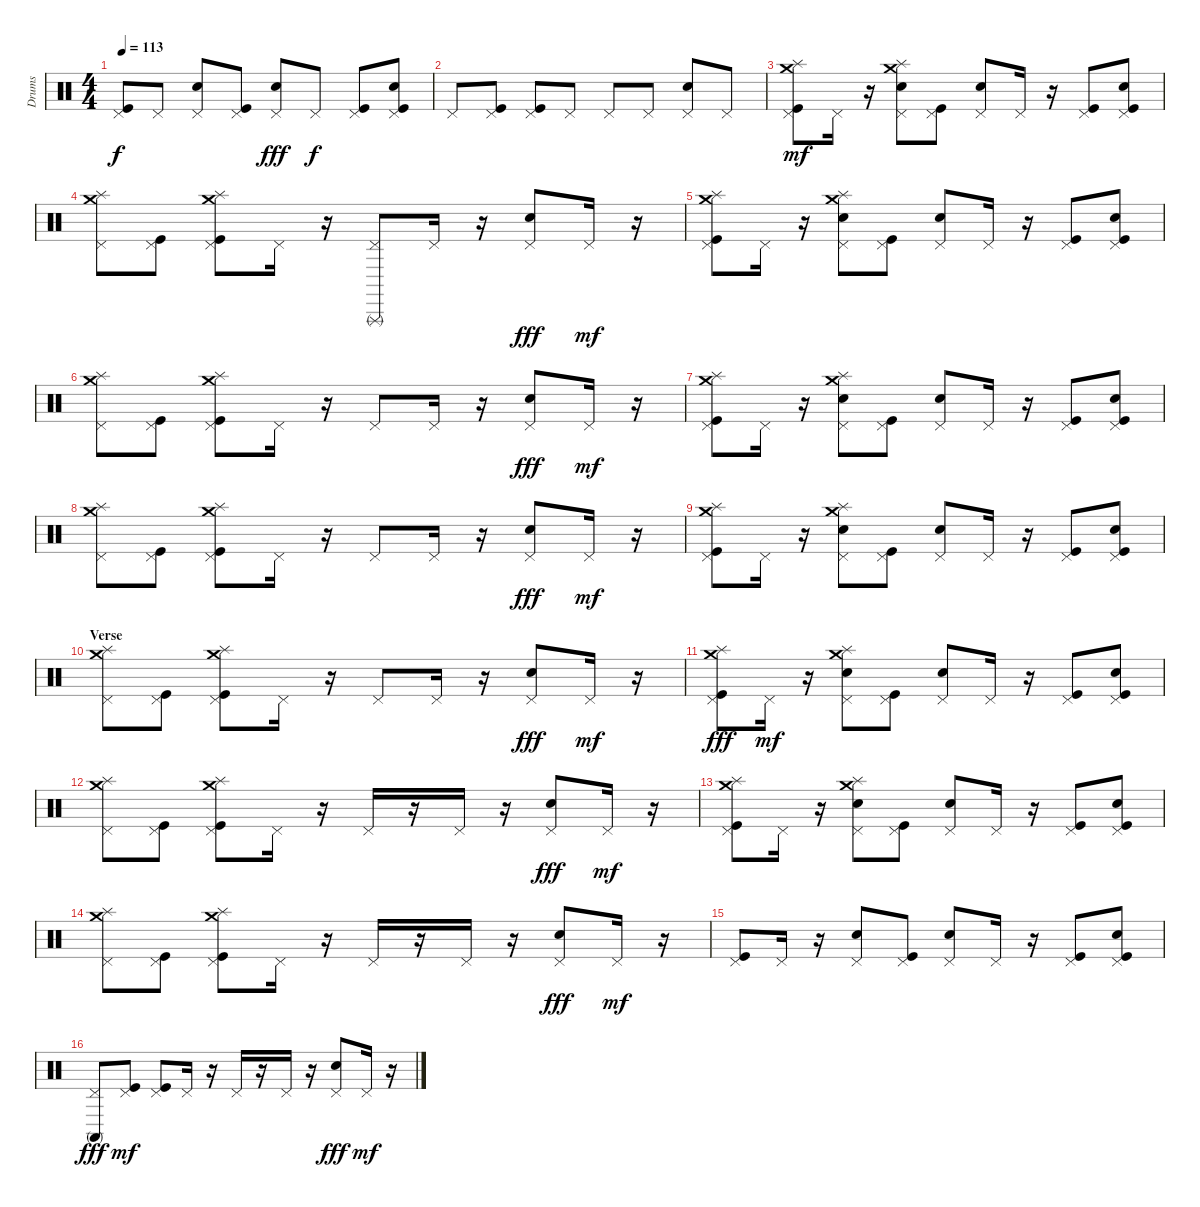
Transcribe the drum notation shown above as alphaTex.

\track ("Drums" "Drums") {instrument percussion}
\staff {score}
\articulation defaults
\ts (4 4)
\tempo 113
\clef neutral
\ks c
("Pedal Hi-Hat (hit)" "Kick (hit)").8{dy f} "Pedal Hi-Hat (hit)".8 ("Pedal Hi-Hat (hit)" "Electric Snare (hit)").8 ("Pedal Hi-Hat (hit)" "Kick (hit)").8 ("Pedal Hi-Hat (hit)" "Snare (hit) 2").8{dy fff} "Pedal Hi-Hat (hit)".8{dy f} ("Pedal Hi-Hat (hit)" "Kick (hit)").8 ("Pedal Hi-Hat (hit)" "Electric Snare (hit)" "Kick (hit)").8 |
"Pedal Hi-Hat (hit)".8 ("Pedal Hi-Hat (hit)" "Kick (hit)").8 ("Pedal Hi-Hat (hit)" "Kick (hit)").8 "Pedal Hi-Hat (hit)".8 "Pedal Hi-Hat (hit)".8 "Pedal Hi-Hat (hit)".8 ("Pedal Hi-Hat (hit)" "Snare (hit) 2").8 "Pedal Hi-Hat (hit)".8 |
("Splash (hit)" "Crash medium (hit)" "Kick (hit)" "Pedal Hi-Hat (hit)").8{dy mf} "Pedal Hi-Hat (hit)".16 r.16 ("Splash (hit)" "Crash medium (hit)" "Electric Snare (hit)" "Pedal Hi-Hat (hit)").8 ("Kick (hit)" "Pedal Hi-Hat (hit)").8 ("Snare (hit) 2" "Pedal Hi-Hat (hit)").8 "Pedal Hi-Hat (hit)".16 r.16 ("Kick (hit)" "Pedal Hi-Hat (hit)").8 ("Electric Snare (hit)" "Kick (hit)" "Pedal Hi-Hat (hit)").8 |
("Splash (hit)" "Crash medium (hit)" "Pedal Hi-Hat (hit)").8 ("Kick (hit)" "Pedal Hi-Hat (hit)").8 ("Splash (hit)" "Crash medium (hit)" "Kick (hit)" "Pedal Hi-Hat (hit)").8 "Pedal Hi-Hat (hit)".16 r.16 ("Pedal Hi-Hat (hit)" "Triangle (rnute)").8 "Pedal Hi-Hat (hit)".16 r.16 ("Pedal Hi-Hat (hit)" "Snare (hit) 2").8{dy fff} "Pedal Hi-Hat (hit)".16{dy mf} r.16 |
("Splash (hit)" "Crash medium (hit)" "Kick (hit)" "Pedal Hi-Hat (hit)").8 "Pedal Hi-Hat (hit)".16 r.16 ("Splash (hit)" "Crash medium (hit)" "Electric Snare (hit)" "Pedal Hi-Hat (hit)").8 ("Kick (hit)" "Pedal Hi-Hat (hit)").8 ("Snare (hit) 2" "Pedal Hi-Hat (hit)").8 "Pedal Hi-Hat (hit)".16 r.16 ("Kick (hit)" "Pedal Hi-Hat (hit)").8 ("Electric Snare (hit)" "Kick (hit)" "Pedal Hi-Hat (hit)").8 |
("Splash (hit)" "Crash medium (hit)" "Pedal Hi-Hat (hit)").8 ("Kick (hit)" "Pedal Hi-Hat (hit)").8 ("Splash (hit)" "Crash medium (hit)" "Kick (hit)" "Pedal Hi-Hat (hit)").8 "Pedal Hi-Hat (hit)".16 r.16 "Pedal Hi-Hat (hit)".8 "Pedal Hi-Hat (hit)".16 r.16 ("Pedal Hi-Hat (hit)" "Snare (hit) 2").8{dy fff} "Pedal Hi-Hat (hit)".16{dy mf} r.16 |
("Splash (hit)" "Crash medium (hit)" "Kick (hit)" "Pedal Hi-Hat (hit)").8 "Pedal Hi-Hat (hit)".16 r.16 ("Splash (hit)" "Crash medium (hit)" "Electric Snare (hit)" "Pedal Hi-Hat (hit)").8 ("Kick (hit)" "Pedal Hi-Hat (hit)").8 ("Snare (hit) 2" "Pedal Hi-Hat (hit)").8 "Pedal Hi-Hat (hit)".16 r.16 ("Kick (hit)" "Pedal Hi-Hat (hit)").8 ("Electric Snare (hit)" "Kick (hit)" "Pedal Hi-Hat (hit)").8 |
("Splash (hit)" "Crash medium (hit)" "Pedal Hi-Hat (hit)").8 ("Kick (hit)" "Pedal Hi-Hat (hit)").8 ("Splash (hit)" "Crash medium (hit)" "Kick (hit)" "Pedal Hi-Hat (hit)").8 "Pedal Hi-Hat (hit)".16 r.16 "Pedal Hi-Hat (hit)".8 "Pedal Hi-Hat (hit)".16 r.16 ("Pedal Hi-Hat (hit)" "Snare (hit) 2").8{dy fff} "Pedal Hi-Hat (hit)".16{dy mf} r.16 |
("Splash (hit)" "Crash medium (hit)" "Kick (hit)" "Pedal Hi-Hat (hit)").8 "Pedal Hi-Hat (hit)".16 r.16 ("Splash (hit)" "Crash medium (hit)" "Electric Snare (hit)" "Pedal Hi-Hat (hit)").8 ("Kick (hit)" "Pedal Hi-Hat (hit)").8 ("Snare (hit) 2" "Pedal Hi-Hat (hit)").8 "Pedal Hi-Hat (hit)".16 r.16 ("Kick (hit)" "Pedal Hi-Hat (hit)").8 ("Electric Snare (hit)" "Kick (hit)" "Pedal Hi-Hat (hit)").8 |
\section ("" "Verse")
("Splash (hit)" "Crash medium (hit)" "Pedal Hi-Hat (hit)").8 ("Kick (hit)" "Pedal Hi-Hat (hit)").8 ("Splash (hit)" "Crash medium (hit)" "Kick (hit)" "Pedal Hi-Hat (hit)").8 "Pedal Hi-Hat (hit)".16 r.16 "Pedal Hi-Hat (hit)".8 "Pedal Hi-Hat (hit)".16 r.16 ("Pedal Hi-Hat (hit)" "Snare (hit) 2").8{dy fff} "Pedal Hi-Hat (hit)".16{dy mf} r.16 |
("Splash (hit)" "Crash medium (hit)" "Kick (hit)" "Pedal Hi-Hat (hit)").8{dy fff} "Pedal Hi-Hat (hit)".16{dy mf} r.16 ("Splash (hit)" "Crash medium (hit)" "Electric Snare (hit)" "Pedal Hi-Hat (hit)").8 ("Kick (hit)" "Pedal Hi-Hat (hit)").8 ("Snare (hit) 2" "Pedal Hi-Hat (hit)").8 "Pedal Hi-Hat (hit)".16 r.16 ("Kick (hit)" "Pedal Hi-Hat (hit)").8 ("Electric Snare (hit)" "Kick (hit)" "Pedal Hi-Hat (hit)").8 |
("Splash (hit)" "Crash medium (hit)" "Pedal Hi-Hat (hit)").8 ("Kick (hit)" "Pedal Hi-Hat (hit)").8 ("Splash (hit)" "Crash medium (hit)" "Kick (hit)" "Pedal Hi-Hat (hit)").8 "Pedal Hi-Hat (hit)".16 r.16 "Pedal Hi-Hat (hit)".16 r.16 "Pedal Hi-Hat (hit)".16 r.16 ("Pedal Hi-Hat (hit)" "Snare (hit) 2").8{dy fff} "Pedal Hi-Hat (hit)".16{dy mf} r.16 |
("Splash (hit)" "Crash medium (hit)" "Kick (hit)" "Pedal Hi-Hat (hit)").8 "Pedal Hi-Hat (hit)".16 r.16 ("Splash (hit)" "Crash medium (hit)" "Electric Snare (hit)" "Pedal Hi-Hat (hit)").8 ("Kick (hit)" "Pedal Hi-Hat (hit)").8 ("Snare (hit) 2" "Pedal Hi-Hat (hit)").8 "Pedal Hi-Hat (hit)".16 r.16 ("Kick (hit)" "Pedal Hi-Hat (hit)").8 ("Electric Snare (hit)" "Kick (hit)" "Pedal Hi-Hat (hit)").8 |
("Splash (hit)" "Crash medium (hit)" "Pedal Hi-Hat (hit)").8 ("Kick (hit)" "Pedal Hi-Hat (hit)").8 ("Splash (hit)" "Crash medium (hit)" "Kick (hit)" "Pedal Hi-Hat (hit)").8 "Pedal Hi-Hat (hit)".16 r.16 "Pedal Hi-Hat (hit)".16 r.16 "Pedal Hi-Hat (hit)".16 r.16 ("Pedal Hi-Hat (hit)" "Snare (hit) 2").8{dy fff} "Pedal Hi-Hat (hit)".16{dy mf} r.16 |
("Kick (hit)" "Pedal Hi-Hat (hit)").8 "Pedal Hi-Hat (hit)".16 r.16 ("Electric Snare (hit)" "Pedal Hi-Hat (hit)").8 ("Kick (hit)" "Pedal Hi-Hat (hit)").8 ("Snare (hit) 2" "Pedal Hi-Hat (hit)").8 "Pedal Hi-Hat (hit)".16 r.16 ("Kick (hit)" "Pedal Hi-Hat (hit)").8 ("Electric Snare (hit)" "Kick (hit)" "Pedal Hi-Hat (hit)").8 |
("Pedal Hi-Hat (hit)" "Conga high (mute)").8{dy fff} ("Kick (hit)" "Pedal Hi-Hat (hit)").8{dy mf} ("Kick (hit)" "Pedal Hi-Hat (hit)").8 "Pedal Hi-Hat (hit)".16 r.16 "Pedal Hi-Hat (hit)".16 r.16 "Pedal Hi-Hat (hit)".16 r.16 ("Pedal Hi-Hat (hit)" "Snare (hit) 2").8{dy fff} "Pedal Hi-Hat (hit)".16{dy mf} r.16
